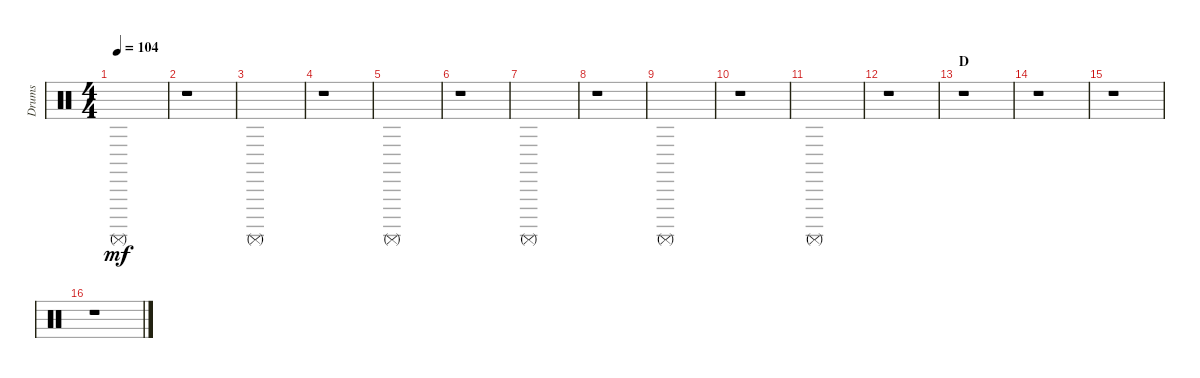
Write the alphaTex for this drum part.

\track ("Drums" "Drums") {instrument percussion}
\staff {score}
\articulation defaults
\ts (4 4)
\tempo 104
\clef neutral
\ks c "Surdo (mute)".1{dy mf}
|
r.1 |
"Surdo (mute)".1 |
r.1 |
"Surdo (mute)".1 |
r.1 |
"Surdo (mute)".1 |
r.1 |
"Surdo (mute)".1 |
r.1 |
"Surdo (mute)".1 |
r.1 |
\section ("" "D")
r.1 |
r.1 |
r.1 |
r.1
